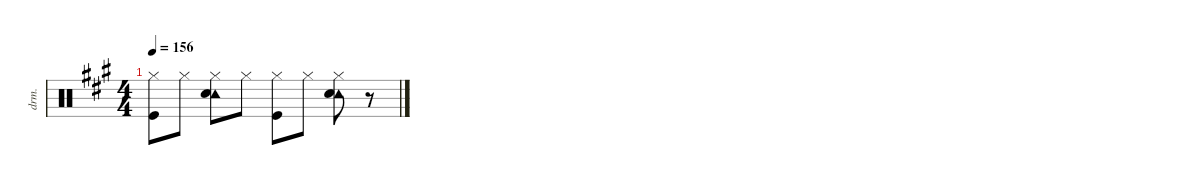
\defaultSystemsLayout 4
\hideDynamics
\bracketExtendMode nobrackets
\otherSystemsTrackNameOrientation horizontal
\track ("Drums" "drm.") {instrument percussion}
\staff {score}
\articulation defaults
\ts (4 4)
\tempo 156
\clef neutral
\ks a
("Hi-Hat (closed)"{acc forcenatural} "Kick (hit)"{acc forcenatural}).8{dy f beam Down} "Hi-Hat (closed)"{acc forcenatural}.8{beam Down} ("Hi-Hat (closed)"{acc forcenatural} "Tambourine (hit)"{acc forcenatural} "Snare (hit) 2"{acc forcenatural}).8{beam Down} "Hi-Hat (closed)"{acc forcenatural}.8{beam Down} ("Hi-Hat (closed)"{acc forcenatural} "Kick (hit)"{acc forcenatural}).8{beam Down} "Hi-Hat (closed)"{acc forcenatural}.8{beam Down} ("Hi-Hat (closed)"{acc forcenatural} "Tambourine (hit)"{acc forcenatural} "Snare (hit) 2"{acc forcenatural}).8{beam Down} r.8{beam Down}
